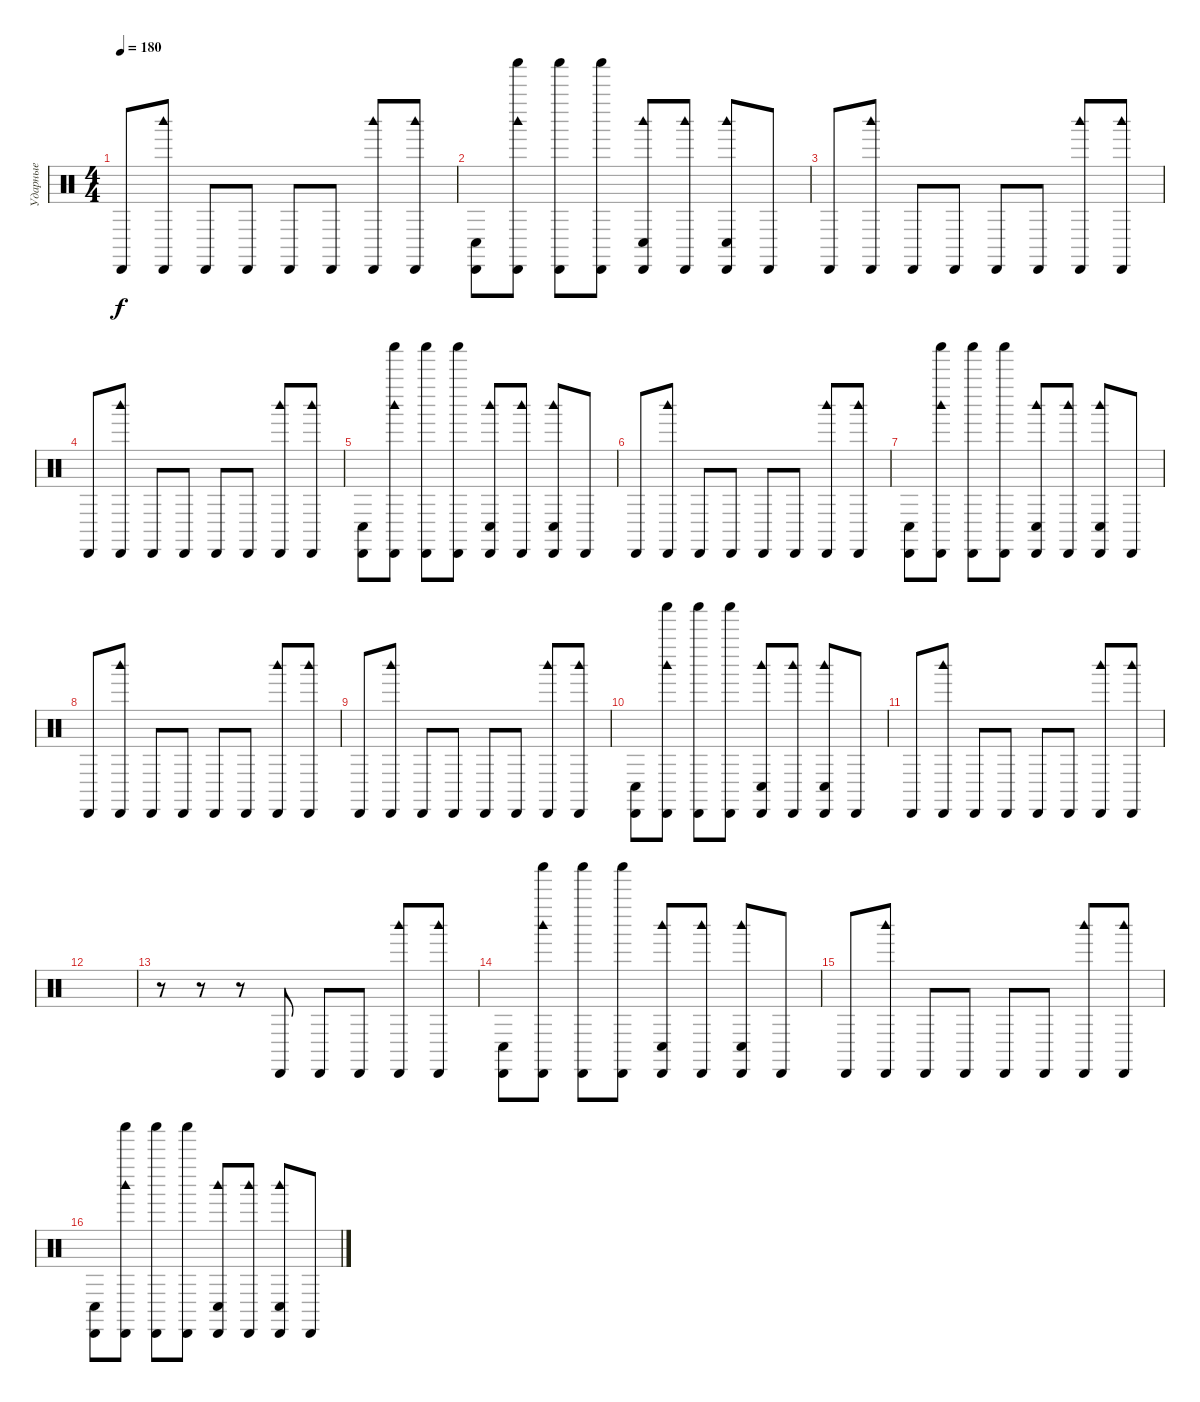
\track ("Ударные" "Ударные") {instrument percussion}
\staff {score}
\articulation defaults
\ts (4 4)
\tempo 180
\clef neutral
\ks c "Cabasa (hit)".8{dy f}
("Woodblock high (hit)" "Cabasa (hit)").8 "Cabasa (hit)".8 "Cabasa (hit)".8 "Cabasa (hit)".8 "Cabasa (hit)".8 ("Woodblock high (hit)" "Cabasa (hit)").8 ("Woodblock high (hit)" "Cabasa (hit)").8 |
("Cabasa (hit)" "Conga low (hit)").8 ("Woodblock high (hit)" "Shaker (hit)" "Cabasa (hit)").8 ("Shaker (hit)" "Cabasa (hit)").8 ("Shaker (hit)" "Cabasa (hit)").8 ("Woodblock high (hit)" "Cabasa (hit)" "Conga low (hit)").8 ("Woodblock high (hit)" "Cabasa (hit)").8 ("Woodblock high (hit)" "Cabasa (hit)" "Conga low (hit)").8 "Cabasa (hit)".8 |
"Cabasa (hit)".8 ("Woodblock high (hit)" "Cabasa (hit)").8 "Cabasa (hit)".8 "Cabasa (hit)".8 "Cabasa (hit)".8 "Cabasa (hit)".8 ("Woodblock high (hit)" "Cabasa (hit)").8 ("Woodblock high (hit)" "Cabasa (hit)").8 |
"Cabasa (hit)".8 ("Woodblock high (hit)" "Cabasa (hit)").8 "Cabasa (hit)".8 "Cabasa (hit)".8 "Cabasa (hit)".8 "Cabasa (hit)".8 ("Woodblock high (hit)" "Cabasa (hit)").8 ("Woodblock high (hit)" "Cabasa (hit)").8 |
("Cabasa (hit)" "Conga low (hit)").8 ("Woodblock high (hit)" "Shaker (hit)" "Cabasa (hit)").8 ("Shaker (hit)" "Cabasa (hit)").8 ("Shaker (hit)" "Cabasa (hit)").8 ("Woodblock high (hit)" "Cabasa (hit)" "Conga low (hit)").8 ("Woodblock high (hit)" "Cabasa (hit)").8 ("Woodblock high (hit)" "Cabasa (hit)" "Conga low (hit)").8 "Cabasa (hit)".8 |
"Cabasa (hit)".8 ("Woodblock high (hit)" "Cabasa (hit)").8 "Cabasa (hit)".8 "Cabasa (hit)".8 "Cabasa (hit)".8 "Cabasa (hit)".8 ("Woodblock high (hit)" "Cabasa (hit)").8 ("Woodblock high (hit)" "Cabasa (hit)").8 |
("Cabasa (hit)" "Conga low (hit)").8 ("Woodblock high (hit)" "Shaker (hit)" "Cabasa (hit)").8 ("Shaker (hit)" "Cabasa (hit)").8 ("Shaker (hit)" "Cabasa (hit)").8 ("Woodblock high (hit)" "Cabasa (hit)" "Conga low (hit)").8 ("Woodblock high (hit)" "Cabasa (hit)").8 ("Woodblock high (hit)" "Cabasa (hit)" "Conga low (hit)").8 "Cabasa (hit)".8 |
"Cabasa (hit)".8 ("Woodblock high (hit)" "Cabasa (hit)").8 "Cabasa (hit)".8 "Cabasa (hit)".8 "Cabasa (hit)".8 "Cabasa (hit)".8 ("Woodblock high (hit)" "Cabasa (hit)").8 ("Woodblock high (hit)" "Cabasa (hit)").8 |
"Cabasa (hit)".8 ("Woodblock high (hit)" "Cabasa (hit)").8 "Cabasa (hit)".8 "Cabasa (hit)".8 "Cabasa (hit)".8 "Cabasa (hit)".8 ("Woodblock high (hit)" "Cabasa (hit)").8 ("Woodblock high (hit)" "Cabasa (hit)").8 |
("Cabasa (hit)" "Conga low (hit)").8 ("Woodblock high (hit)" "Shaker (hit)" "Cabasa (hit)").8 ("Shaker (hit)" "Cabasa (hit)").8 ("Shaker (hit)" "Cabasa (hit)").8 ("Woodblock high (hit)" "Cabasa (hit)" "Conga low (hit)").8 ("Woodblock high (hit)" "Cabasa (hit)").8 ("Woodblock high (hit)" "Cabasa (hit)" "Conga low (hit)").8 "Cabasa (hit)".8 |
"Cabasa (hit)".8 ("Woodblock high (hit)" "Cabasa (hit)").8 "Cabasa (hit)".8 "Cabasa (hit)".8 "Cabasa (hit)".8 "Cabasa (hit)".8 ("Woodblock high (hit)" "Cabasa (hit)").8 ("Woodblock high (hit)" "Cabasa (hit)").8 |
|
r.8 r.8 r.8 "Cabasa (hit)".8 "Cabasa (hit)".8 "Cabasa (hit)".8 ("Woodblock high (hit)" "Cabasa (hit)").8 ("Woodblock high (hit)" "Cabasa (hit)").8 |
("Cabasa (hit)" "Conga low (hit)").8 ("Woodblock high (hit)" "Shaker (hit)" "Cabasa (hit)").8 ("Shaker (hit)" "Cabasa (hit)").8 ("Shaker (hit)" "Cabasa (hit)").8 ("Woodblock high (hit)" "Cabasa (hit)" "Conga low (hit)").8 ("Woodblock high (hit)" "Cabasa (hit)").8 ("Woodblock high (hit)" "Cabasa (hit)" "Conga low (hit)").8 "Cabasa (hit)".8 |
"Cabasa (hit)".8 ("Woodblock high (hit)" "Cabasa (hit)").8 "Cabasa (hit)".8 "Cabasa (hit)".8 "Cabasa (hit)".8 "Cabasa (hit)".8 ("Woodblock high (hit)" "Cabasa (hit)").8 ("Woodblock high (hit)" "Cabasa (hit)").8 |
("Cabasa (hit)" "Conga low (hit)").8 ("Woodblock high (hit)" "Shaker (hit)" "Cabasa (hit)").8 ("Shaker (hit)" "Cabasa (hit)").8 ("Shaker (hit)" "Cabasa (hit)").8 ("Woodblock high (hit)" "Cabasa (hit)" "Conga low (hit)").8 ("Woodblock high (hit)" "Cabasa (hit)").8 ("Woodblock high (hit)" "Cabasa (hit)" "Conga low (hit)").8 "Cabasa (hit)".8
